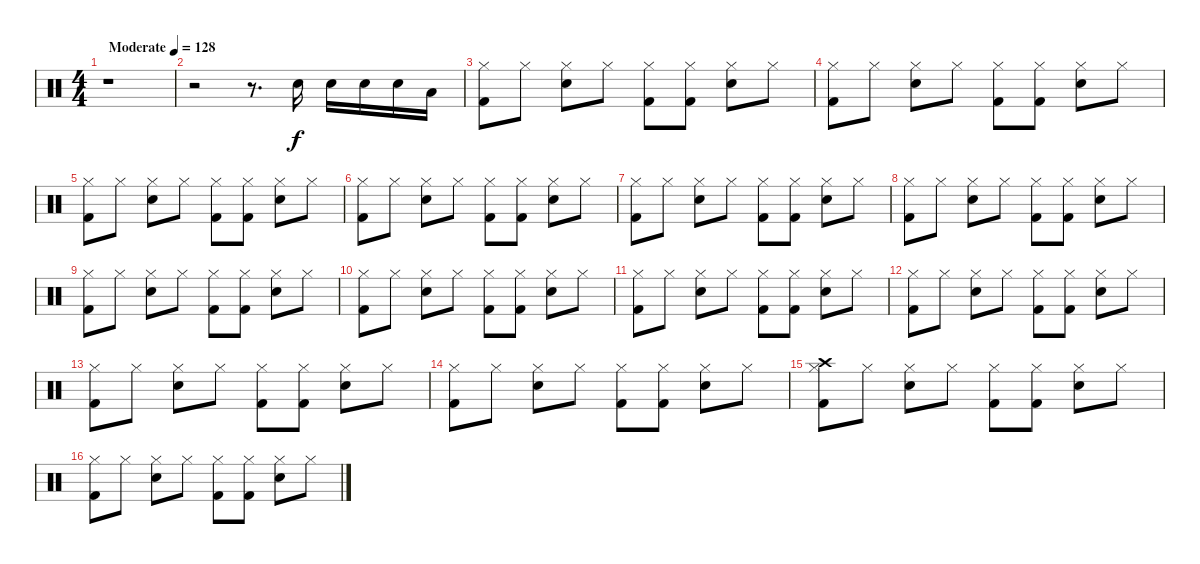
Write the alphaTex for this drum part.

\track "" {instrument percussion}
\staff {score}
\articulation defaults
\ts (4 4)
\tempo (128 "Moderate")
\clef neutral
\ks c
r.1{dy f} |
r.2 r.8{d} "Snare (hit) 2".16 "Snare (hit) 2".16 "Snare (hit) 2".16 "Snare (hit) 2".16 "Low Floor Tom (hit)".16 |
("Hi-Hat (closed)" "Kick (hit) 2").8 "Hi-Hat (closed)".8 ("Hi-Hat (closed)" "Snare (hit) 2").8 "Hi-Hat (closed)".8 ("Hi-Hat (closed)" "Kick (hit) 2").8 ("Hi-Hat (closed)" "Kick (hit) 2").8 ("Hi-Hat (closed)" "Snare (hit) 2").8 "Hi-Hat (closed)".8 |
("Hi-Hat (closed)" "Kick (hit) 2").8 "Hi-Hat (closed)".8 ("Hi-Hat (closed)" "Snare (hit) 2").8 "Hi-Hat (closed)".8 ("Hi-Hat (closed)" "Kick (hit) 2").8 ("Hi-Hat (closed)" "Kick (hit) 2").8 ("Hi-Hat (closed)" "Snare (hit) 2").8 "Hi-Hat (closed)".8 |
("Hi-Hat (closed)" "Kick (hit) 2").8 "Hi-Hat (closed)".8 ("Hi-Hat (closed)" "Snare (hit) 2").8 "Hi-Hat (closed)".8 ("Hi-Hat (closed)" "Kick (hit) 2").8 ("Hi-Hat (closed)" "Kick (hit) 2").8 ("Hi-Hat (closed)" "Snare (hit) 2").8 "Hi-Hat (closed)".8 |
("Hi-Hat (closed)" "Kick (hit) 2").8 "Hi-Hat (closed)".8 ("Hi-Hat (closed)" "Snare (hit) 2").8 "Hi-Hat (closed)".8 ("Hi-Hat (closed)" "Kick (hit) 2").8 ("Hi-Hat (closed)" "Kick (hit) 2").8 ("Hi-Hat (closed)" "Snare (hit) 2").8 "Hi-Hat (closed)".8 |
("Hi-Hat (closed)" "Kick (hit) 2").8 "Hi-Hat (closed)".8 ("Hi-Hat (closed)" "Snare (hit) 2").8 "Hi-Hat (closed)".8 ("Hi-Hat (closed)" "Kick (hit) 2").8 ("Hi-Hat (closed)" "Kick (hit) 2").8 ("Hi-Hat (closed)" "Snare (hit) 2").8 "Hi-Hat (closed)".8 |
("Hi-Hat (closed)" "Kick (hit) 2").8 "Hi-Hat (closed)".8 ("Hi-Hat (closed)" "Snare (hit) 2").8 "Hi-Hat (closed)".8 ("Hi-Hat (closed)" "Kick (hit) 2").8 ("Hi-Hat (closed)" "Kick (hit) 2").8 ("Hi-Hat (closed)" "Snare (hit) 2").8 "Hi-Hat (closed)".8 |
("Hi-Hat (closed)" "Kick (hit) 2").8 "Hi-Hat (closed)".8 ("Hi-Hat (closed)" "Snare (hit) 2").8 "Hi-Hat (closed)".8 ("Hi-Hat (closed)" "Kick (hit) 2").8 ("Hi-Hat (closed)" "Kick (hit) 2").8 ("Hi-Hat (closed)" "Snare (hit) 2").8 "Hi-Hat (closed)".8 |
("Hi-Hat (closed)" "Kick (hit) 2").8 "Hi-Hat (closed)".8 ("Hi-Hat (closed)" "Snare (hit) 2").8 "Hi-Hat (closed)".8 ("Hi-Hat (closed)" "Kick (hit) 2").8 ("Hi-Hat (closed)" "Kick (hit) 2").8 ("Hi-Hat (closed)" "Snare (hit) 2").8 "Hi-Hat (closed)".8 |
("Hi-Hat (closed)" "Kick (hit) 2").8 "Hi-Hat (closed)".8 ("Hi-Hat (closed)" "Snare (hit) 2").8 "Hi-Hat (closed)".8 ("Hi-Hat (closed)" "Kick (hit) 2").8 ("Hi-Hat (closed)" "Kick (hit) 2").8 ("Hi-Hat (closed)" "Snare (hit) 2").8 "Hi-Hat (closed)".8 |
("Hi-Hat (closed)" "Kick (hit) 2").8 "Hi-Hat (closed)".8 ("Hi-Hat (closed)" "Snare (hit) 2").8 "Hi-Hat (closed)".8 ("Hi-Hat (closed)" "Kick (hit) 2").8 ("Hi-Hat (closed)" "Kick (hit) 2").8 ("Hi-Hat (closed)" "Snare (hit) 2").8 "Hi-Hat (closed)".8 |
("Hi-Hat (closed)" "Kick (hit) 2").8 "Hi-Hat (closed)".8 ("Hi-Hat (closed)" "Snare (hit) 2").8 "Hi-Hat (closed)".8 ("Hi-Hat (closed)" "Kick (hit) 2").8 ("Hi-Hat (closed)" "Kick (hit) 2").8 ("Hi-Hat (closed)" "Snare (hit) 2").8 "Hi-Hat (closed)".8 |
("Hi-Hat (closed)" "Kick (hit) 2").8 "Hi-Hat (closed)".8 ("Hi-Hat (closed)" "Snare (hit) 2").8 "Hi-Hat (closed)".8 ("Hi-Hat (closed)" "Kick (hit) 2").8 ("Hi-Hat (closed)" "Kick (hit) 2").8 ("Hi-Hat (closed)" "Snare (hit) 2").8 "Hi-Hat (closed)".8 |
("Hi-Hat (closed)" "Crash high (hit)" "Kick (hit) 2").8 "Hi-Hat (closed)".8 ("Hi-Hat (closed)" "Snare (hit) 2").8 "Hi-Hat (closed)".8 ("Hi-Hat (closed)" "Kick (hit) 2").8 ("Hi-Hat (closed)" "Kick (hit) 2").8 ("Hi-Hat (closed)" "Snare (hit) 2").8 "Hi-Hat (closed)".8 |
("Hi-Hat (closed)" "Kick (hit) 2").8 "Hi-Hat (closed)".8 ("Hi-Hat (closed)" "Snare (hit) 2").8 "Hi-Hat (closed)".8 ("Hi-Hat (closed)" "Kick (hit) 2").8 ("Hi-Hat (closed)" "Kick (hit) 2").8 ("Hi-Hat (closed)" "Snare (hit) 2").8 "Hi-Hat (closed)".8
